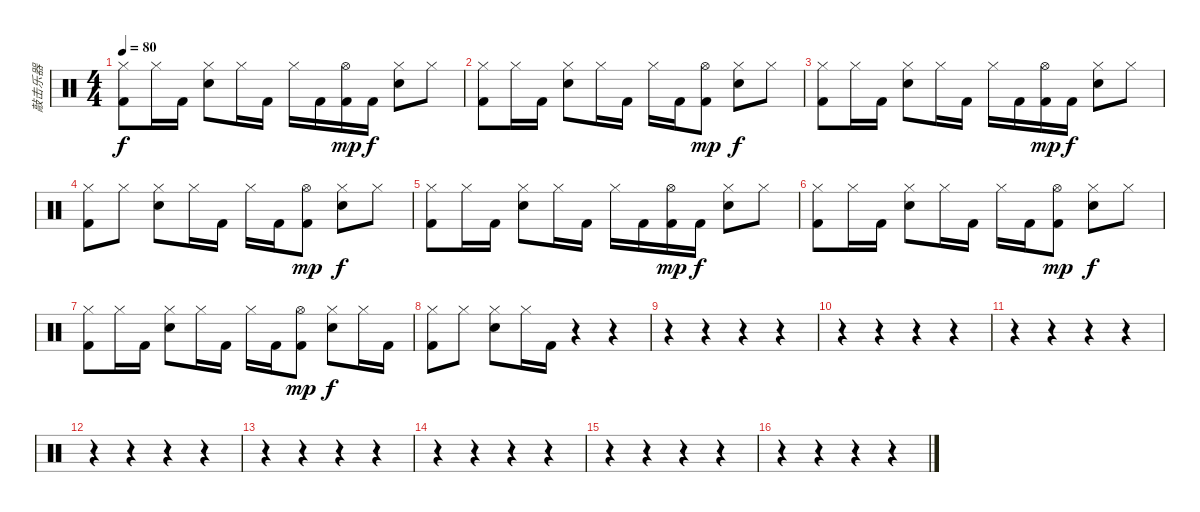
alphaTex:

\track ("敲击乐器" "敲击乐器") {instrument percussion}
\staff {score}
\articulation defaults
\ts (4 4)
\tempo 80
\clef neutral
\ks c
("Hi-Hat (closed)" "Kick (hit) 2").8{dy f} "Hi-Hat (closed)".16 "Kick (hit) 2".16 ("Hi-Hat (closed)" "Electric Snare (hit)").8 "Hi-Hat (closed)".16 "Kick (hit) 2".16 "Hi-Hat (closed)".16 "Kick (hit) 2".16 ("Hi-Hat (open)" "Kick (hit) 2").16{dy mp} "Kick (hit) 2".16{dy f} ("Hi-Hat (closed)" "Electric Snare (hit)").8 "Hi-Hat (closed)".8 |
("Hi-Hat (closed)" "Kick (hit) 2").8 "Hi-Hat (closed)".16 "Kick (hit) 2".16 ("Hi-Hat (closed)" "Electric Snare (hit)").8 "Hi-Hat (closed)".16 "Kick (hit) 2".16 "Hi-Hat (closed)".16 "Kick (hit) 2".16 ("Hi-Hat (open)" "Kick (hit) 2").8{dy mp} ("Hi-Hat (closed)" "Electric Snare (hit)").8{dy f} "Hi-Hat (closed)".8 |
("Hi-Hat (closed)" "Kick (hit) 2").8 "Hi-Hat (closed)".16 "Kick (hit) 2".16 ("Hi-Hat (closed)" "Electric Snare (hit)").8 "Hi-Hat (closed)".16 "Kick (hit) 2".16 "Hi-Hat (closed)".16 "Kick (hit) 2".16 ("Hi-Hat (open)" "Kick (hit) 2").16{dy mp} "Kick (hit) 2".16{dy f} ("Hi-Hat (closed)" "Electric Snare (hit)").8 "Hi-Hat (closed)".8 |
("Hi-Hat (closed)" "Kick (hit) 2").8 "Hi-Hat (closed)".8 ("Hi-Hat (closed)" "Electric Snare (hit)").8 "Hi-Hat (closed)".16 "Kick (hit) 2".16 "Hi-Hat (closed)".16 "Kick (hit) 2".16 ("Hi-Hat (open)" "Kick (hit) 2").8{dy mp} ("Hi-Hat (closed)" "Electric Snare (hit)").8{dy f} "Hi-Hat (closed)".8 |
("Hi-Hat (closed)" "Kick (hit) 2").8 "Hi-Hat (closed)".16 "Kick (hit) 2".16 ("Hi-Hat (closed)" "Electric Snare (hit)").8 "Hi-Hat (closed)".16 "Kick (hit) 2".16 "Hi-Hat (closed)".16 "Kick (hit) 2".16 ("Hi-Hat (open)" "Kick (hit) 2").16{dy mp} "Kick (hit) 2".16{dy f} ("Hi-Hat (closed)" "Electric Snare (hit)").8 "Hi-Hat (closed)".8 |
("Hi-Hat (closed)" "Kick (hit) 2").8 "Hi-Hat (closed)".16 "Kick (hit) 2".16 ("Hi-Hat (closed)" "Electric Snare (hit)").8 "Hi-Hat (closed)".16 "Kick (hit) 2".16 "Hi-Hat (closed)".16 "Kick (hit) 2".16 ("Hi-Hat (open)" "Kick (hit) 2").8{dy mp} ("Hi-Hat (closed)" "Electric Snare (hit)").8{dy f} "Hi-Hat (closed)".8 |
("Hi-Hat (closed)" "Kick (hit) 2").8 "Hi-Hat (closed)".16 "Kick (hit) 2".16 ("Hi-Hat (closed)" "Electric Snare (hit)").8 "Hi-Hat (closed)".16 "Kick (hit) 2".16 "Hi-Hat (closed)".16 "Kick (hit) 2".16 ("Hi-Hat (open)" "Kick (hit) 2").8{dy mp} ("Hi-Hat (closed)" "Electric Snare (hit)").8{dy f} "Hi-Hat (closed)".16 "Kick (hit) 2".16 |
("Hi-Hat (closed)" "Kick (hit) 2").8 "Hi-Hat (closed)".8 ("Hi-Hat (closed)" "Electric Snare (hit)").8 "Hi-Hat (closed)".16 "Kick (hit) 2".16 r.4 r.4 |
r.4 r.4 r.4 r.4 |
r.4 r.4 r.4 r.4 |
r.4 r.4 r.4 r.4 |
r.4 r.4 r.4 r.4 |
r.4 r.4 r.4 r.4 |
r.4 r.4 r.4 r.4 |
r.4 r.4 r.4 r.4 |
r.4 r.4 r.4 r.4
